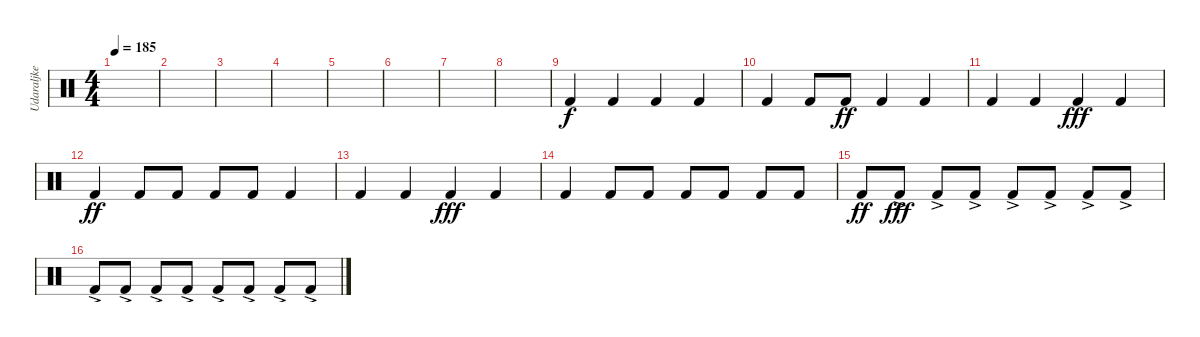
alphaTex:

\track ("Udaraljke" "Udaraljke") {instrument percussion}
\staff {score}
\articulation defaults
\ts (4 4)
\tempo 185
\clef neutral
\ks c
|
|
|
|
|
|
|
|
"Kick (hit) 2".4 "Kick (hit) 2".4 "Kick (hit) 2".4 "Kick (hit) 2".4{dy f} |
"Kick (hit) 2".4 "Kick (hit) 2".8 "Kick (hit) 2".8{dy ff} "Kick (hit) 2".4 "Kick (hit) 2".4 |
"Kick (hit) 2".4 "Kick (hit) 2".4 "Kick (hit) 2".4{dy fff} "Kick (hit) 2".4 |
"Kick (hit) 2".4{dy ff} "Kick (hit) 2".8 "Kick (hit) 2".8 "Kick (hit) 2".8 "Kick (hit) 2".8 "Kick (hit) 2".4 |
"Kick (hit) 2".4 "Kick (hit) 2".4 "Kick (hit) 2".4{dy fff} "Kick (hit) 2".4 |
"Kick (hit) 2".4 "Kick (hit) 2".8 "Kick (hit) 2".8 "Kick (hit) 2".8 "Kick (hit) 2".8 "Kick (hit) 2".8 "Kick (hit) 2".8 |
"Kick (hit) 2".8{dy ff} "Kick (hit) 2"{ac}.8{dy fff} "Kick (hit) 2"{ac}.8 "Kick (hit) 2"{ac}.8 "Kick (hit) 2"{ac}.8 "Kick (hit) 2"{ac}.8 "Kick (hit) 2"{ac}.8 "Kick (hit) 2"{ac}.8 |
"Kick (hit) 2"{ac}.8 "Kick (hit) 2"{ac}.8 "Kick (hit) 2"{ac}.8 "Kick (hit) 2"{ac}.8 "Kick (hit) 2"{ac}.8 "Kick (hit) 2"{ac}.8 "Kick (hit) 2"{ac}.8 "Kick (hit) 2"{ac}.8
